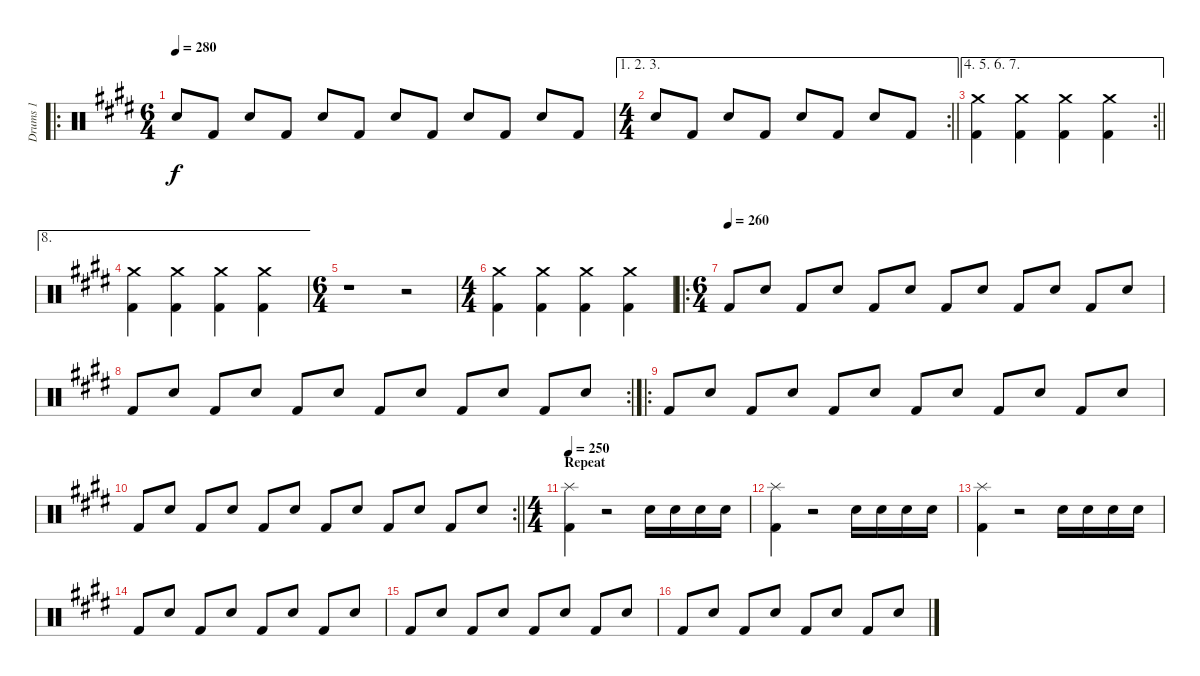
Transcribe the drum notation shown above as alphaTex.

\track ("Drums 1" "Drums 1") {instrument percussion}
\staff {score}
\articulation defaults
\ro
\ts (6 4)
\tempo 280
\clef neutral
\ks c#minor "Electric Snare (hit)".8{dy f} "Kick (hit) 2".8 "Electric Snare (hit)".8 "Kick (hit) 2".8 "Electric Snare (hit)".8 "Kick (hit) 2".8 "Electric Snare (hit)".8 "Kick (hit) 2".8 "Electric Snare (hit)".8 "Kick (hit) 2".8 "Electric Snare (hit)".8 "Kick (hit) 2".8
|
\ae (1 2 3)
\rc 2
\ts (4 4)
\barLineRight lightlight "Electric Snare (hit)".8 "Kick (hit) 2".8 "Electric Snare (hit)".8 "Kick (hit) 2".8 "Electric Snare (hit)".8 "Kick (hit) 2".8 "Electric Snare (hit)".8 "Kick (hit) 2".8
|
\ae (4 5 6 7)
\rc 2
\barLineRight lightlight
("Crash medium (hit)" "Kick (hit) 2").4 ("Crash medium (hit)" "Kick (hit) 2").4 ("Crash medium (hit)" "Kick (hit) 2").4 ("Crash medium (hit)" "Kick (hit) 2").4 |
\ae 8
("Crash medium (hit)" "Kick (hit) 2").4 ("Crash medium (hit)" "Kick (hit) 2").4 ("Crash medium (hit)" "Kick (hit) 2").4 ("Crash medium (hit)" "Kick (hit) 2").4 |
\ts (6 4)
r.1 r.2 |
\ts (4 4)
("Crash medium (hit)" "Kick (hit) 2").4 ("Crash medium (hit)" "Kick (hit) 2").4 ("Crash medium (hit)" "Kick (hit) 2").4 ("Crash medium (hit)" "Kick (hit) 2").4 |
\ro
\ts (6 4)
\tempo (260)
"Kick (hit) 2".8 "Electric Snare (hit)".8 "Kick (hit) 2".8 "Electric Snare (hit)".8 "Kick (hit) 2".8 "Electric Snare (hit)".8 "Kick (hit) 2".8 "Electric Snare (hit)".8 "Kick (hit) 2".8 "Electric Snare (hit)".8 "Kick (hit) 2".8 "Electric Snare (hit)".8 |
\rc 2 "Kick (hit) 2".8 "Electric Snare (hit)".8 "Kick (hit) 2".8 "Electric Snare (hit)".8 "Kick (hit) 2".8 "Electric Snare (hit)".8 "Kick (hit) 2".8 "Electric Snare (hit)".8 "Kick (hit) 2".8 "Electric Snare (hit)".8 "Kick (hit) 2".8 "Electric Snare (hit)".8
|
\ro "Kick (hit) 2".8 "Electric Snare (hit)".8 "Kick (hit) 2".8 "Electric Snare (hit)".8 "Kick (hit) 2".8 "Electric Snare (hit)".8 "Kick (hit) 2".8 "Electric Snare (hit)".8 "Kick (hit) 2".8 "Electric Snare (hit)".8 "Kick (hit) 2".8 "Electric Snare (hit)".8
|
\rc 2
\barLineRight lightlight "Kick (hit) 2".8 "Electric Snare (hit)".8 "Kick (hit) 2".8 "Electric Snare (hit)".8 "Kick (hit) 2".8 "Electric Snare (hit)".8 "Kick (hit) 2".8 "Electric Snare (hit)".8 "Kick (hit) 2".8 "Electric Snare (hit)".8 "Kick (hit) 2".8 "Electric Snare (hit)".8
|
\ts (4 4)
\section ("" "Repeat")
\tempo 250
("Splash (hit)" "Kick (hit) 2").4 r.2 "Electric Snare (hit)".16 "Electric Snare (hit)".16 "Electric Snare (hit)".16 "Electric Snare (hit)".16 |
("Splash (hit)" "Kick (hit) 2").4 r.2 "Electric Snare (hit)".16 "Electric Snare (hit)".16 "Electric Snare (hit)".16 "Electric Snare (hit)".16 |
("Splash (hit)" "Kick (hit) 2").4 r.2 "Electric Snare (hit)".16 "Electric Snare (hit)".16 "Electric Snare (hit)".16 "Electric Snare (hit)".16 |
"Kick (hit) 2".8 "Electric Snare (hit)".8 "Kick (hit) 2".8 "Electric Snare (hit)".8 "Kick (hit) 2".8 "Electric Snare (hit)".8 "Kick (hit) 2".8 "Electric Snare (hit)".8 |
"Kick (hit) 2".8 "Electric Snare (hit)".8 "Kick (hit) 2".8 "Electric Snare (hit)".8 "Kick (hit) 2".8 "Electric Snare (hit)".8 "Kick (hit) 2".8 "Electric Snare (hit)".8 |
"Kick (hit) 2".8 "Electric Snare (hit)".8 "Kick (hit) 2".8 "Electric Snare (hit)".8 "Kick (hit) 2".8 "Electric Snare (hit)".8 "Kick (hit) 2".8 "Electric Snare (hit)".8
